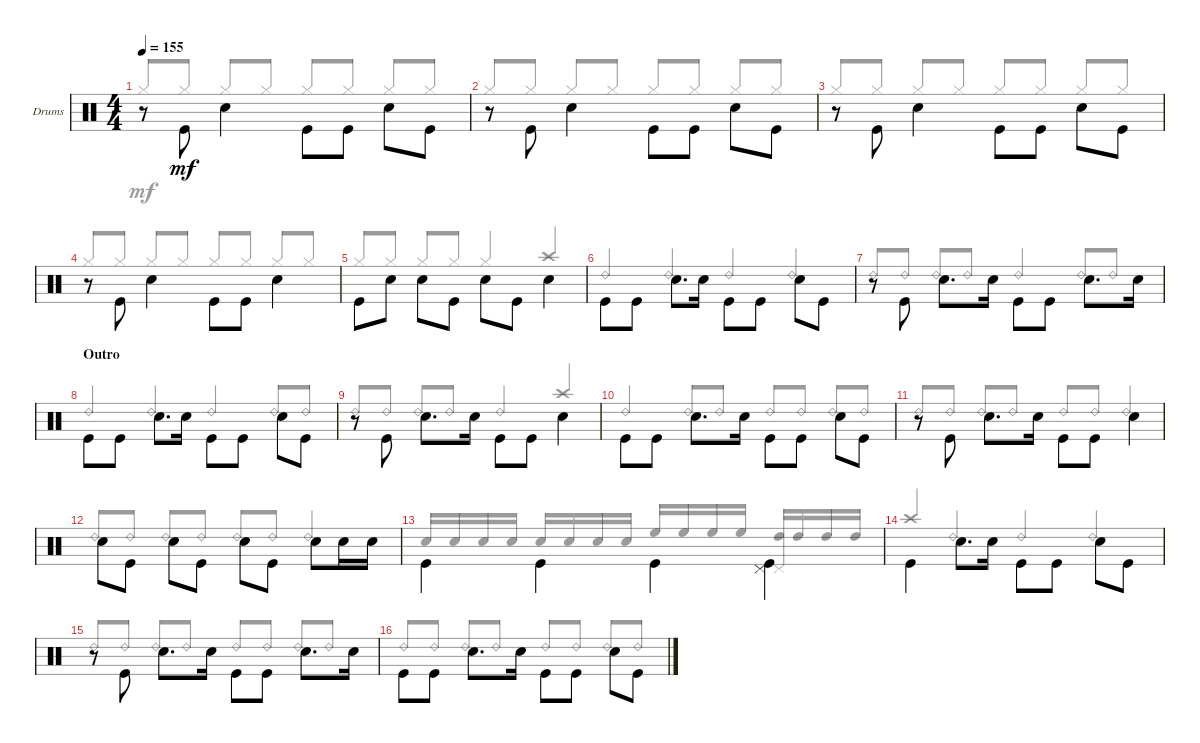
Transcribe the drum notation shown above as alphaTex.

\defaultSystemsLayout 4
\bracketExtendMode groupsimilarinstruments
\firstSystemTrackNameOrientation horizontal
\otherSystemsTrackNameOrientation horizontal
\track ("PETER CRISS" "Drums") {instrument percussion}
\staff {score}
\articulation defaults
\voice
\ts (4 4)
\tempo 155
\clef neutral
\ks c
r.8{dy mf} "Kick (hit)".8{beam invert} "Snare (hit) 2".4{beam invert} "Kick (hit)".8{beam invert} "Kick (hit)".8 "Snare (hit) 2".8{beam invert} "Kick (hit)".8 |
r.8 "Kick (hit)".8{beam invert} "Snare (hit) 2".4{beam invert} "Kick (hit)".8{beam invert} "Kick (hit)".8 "Snare (hit) 2".8{beam invert} "Kick (hit)".8 |
r.8 "Kick (hit)".8{beam invert} "Snare (hit) 2".4{beam invert} "Kick (hit)".8{beam invert} "Kick (hit)".8 "Snare (hit) 2".8{beam invert} "Kick (hit)".8 |
r.8 "Kick (hit)".8{beam invert} "Snare (hit) 2".4{beam invert} "Kick (hit)".8{beam invert} "Kick (hit)".8 "Snare (hit) 2".4{beam invert} |
"Kick (hit)".8{beam invert} "Snare (hit) 2".8 "Snare (hit) 2".8{beam invert} "Kick (hit)".8 "Snare (hit) 2".8{beam invert} "Kick (hit)".8 "Snare (hit) 2".4{beam invert} |
"Kick (hit)".8{beam invert} "Kick (hit)".8 "Snare (hit) 2".8{d beam invert} "Snare (hit) 2".16 "Kick (hit)".8{beam invert} "Kick (hit)".8 "Snare (hit) 2".8{beam invert} "Kick (hit)".8 |
r.8{beam invert} "Kick (hit)".8{beam invert} "Snare (hit) 2".8{d beam invert} "Snare (hit) 2".16 "Kick (hit)".8{beam invert} "Kick (hit)".8 "Snare (hit) 2".8{d beam invert} "Snare (hit) 2".16 |
\section ("" "Outro")
"Kick (hit)".8{beam invert} "Kick (hit)".8 "Snare (hit) 2".8{d beam invert} "Snare (hit) 2".16 "Kick (hit)".8{beam invert} "Kick (hit)".8 "Snare (hit) 2".8{beam invert} "Kick (hit)".8 |
r.8{beam invert} "Kick (hit)".8{beam invert} "Snare (hit) 2".8{d beam invert} "Snare (hit) 2".16 "Kick (hit)".8{beam invert} "Kick (hit)".8 "Snare (hit) 2".4{beam invert} |
"Kick (hit)".8{beam invert} "Kick (hit)".8 "Snare (hit) 2".8{d beam invert} "Snare (hit) 2".16 "Kick (hit)".8{beam invert} "Kick (hit)".8 "Snare (hit) 2".8{beam invert} "Kick (hit)".8 |
r.8{beam invert} "Kick (hit)".8{beam invert} "Snare (hit) 2".8{d beam invert} "Snare (hit) 2".16 "Kick (hit)".8{beam invert} "Kick (hit)".8 "Snare (hit) 2".4{beam invert} |
"Snare (hit) 2".8{beam invert} "Kick (hit)".8 "Snare (hit) 2".8{beam invert} "Kick (hit)".8 "Snare (hit) 2".8{beam invert} "Kick (hit)".8 "Snare (hit) 2".8{beam invert} "Snare (hit) 2".16 "Snare (hit) 2".16 |
"Kick (hit)".4{beam invert} "Kick (hit)".4{beam invert} "Kick (hit)".4{beam invert} ("Kick (hit)" "Pedal Hi-Hat (hit)").4{beam invert} |
"Kick (hit)".4{beam invert} "Snare (hit) 2".8{d beam invert} "Snare (hit) 2".16 "Kick (hit)".8{beam invert} "Kick (hit)".8 "Snare (hit) 2".8{beam invert} "Kick (hit)".8 |
r.8{beam invert} "Kick (hit)".8{beam invert} "Snare (hit) 2".8{d beam invert} "Snare (hit) 2".16 "Kick (hit)".8{beam invert} "Kick (hit)".8 "Snare (hit) 2".8{d beam invert} "Snare (hit) 2".16 |
"Kick (hit)".8{beam invert} "Kick (hit)".8 "Snare (hit) 2".8{d beam invert} "Snare (hit) 2".16 "Kick (hit)".8{beam invert} "Kick (hit)".8 "Snare (hit) 2".8{beam invert} "Kick (hit)".8
\voice
\clef neutral
\ottava regular
\simile none
\ks c "Hi-Hat (closed)".8{dy mf beam invert} "Hi-Hat (closed)".8 "Hi-Hat (closed)".8{beam invert} "Hi-Hat (closed)".8 "Hi-Hat (closed)".8{beam invert} "Hi-Hat (closed)".8 "Hi-Hat (closed)".8{beam invert} "Hi-Hat (closed)".8
|
"Hi-Hat (closed)".8{beam invert} "Hi-Hat (closed)".8 "Hi-Hat (closed)".8{beam invert} "Hi-Hat (closed)".8 "Hi-Hat (closed)".8{beam invert} "Hi-Hat (closed)".8 "Hi-Hat (closed)".8{beam invert} "Hi-Hat (closed)".8 |
"Hi-Hat (closed)".8{beam invert} "Hi-Hat (closed)".8 "Hi-Hat (closed)".8{beam invert} "Hi-Hat (closed)".8 "Hi-Hat (closed)".8{beam invert} "Hi-Hat (closed)".8 "Hi-Hat (closed)".8{beam invert} "Hi-Hat (closed)".8 |
"Hi-Hat (closed)".8{beam invert} "Hi-Hat (closed)".8 "Hi-Hat (closed)".8{beam invert} "Hi-Hat (closed)".8 "Hi-Hat (closed)".8{beam invert} "Hi-Hat (closed)".8 "Hi-Hat (closed)".8{beam invert} "Hi-Hat (closed)".8 |
"Hi-Hat (closed)".8{beam invert} "Hi-Hat (closed)".8 "Hi-Hat (closed)".8{beam invert} "Hi-Hat (closed)".8 "Hi-Hat (closed)".4{beam invert} "Crash high (hit)".4{beam invert} |
"Ride (bell) 2".4{beam invert} "Ride (bell) 2".4{beam invert} "Ride (bell) 2".4{beam invert} "Ride (bell) 2".4{beam invert} |
"Ride (bell) 2".8{beam invert} "Ride (bell) 2".8 "Ride (bell) 2".8{beam invert} "Ride (bell) 2".8 "Ride (bell) 2".4{beam invert} "Ride (bell) 2".8{beam invert} "Ride (bell) 2".8 |
"Ride (bell) 2".4{beam invert} "Ride (bell) 2".4{beam invert} "Ride (bell) 2".4{beam invert} "Ride (bell) 2".8{beam invert} "Ride (bell) 2".8 |
"Ride (bell) 2".8{beam invert} "Ride (bell) 2".8 "Ride (bell) 2".8{beam invert} "Ride (bell) 2".8 "Ride (bell) 2".4{beam invert} "Crash high (hit)".4{beam invert} |
"Ride (bell) 2".4{beam invert} "Ride (bell) 2".8{beam invert} "Ride (bell) 2".8 "Ride (bell) 2".8{beam invert} "Ride (bell) 2".8 "Ride (bell) 2".8{beam invert} "Ride (bell) 2".8 |
"Ride (bell) 2".8{beam invert} "Ride (bell) 2".8 "Ride (bell) 2".8{beam invert} "Ride (bell) 2".8 "Ride (bell) 2".8{beam invert} "Ride (bell) 2".8 "Ride (bell) 2".4{beam invert} |
"Ride (bell) 2".8{beam invert} "Ride (bell) 2".8 "Ride (bell) 2".8{beam invert} "Ride (bell) 2".8 "Ride (bell) 2".8{beam invert} "Ride (bell) 2".8 "Ride (bell) 2".4{beam invert} |
"Snare (hit) 2".16{beam invert} "Snare (hit) 2".16 "Snare (hit) 2".16 "Snare (hit) 2".16 "Snare (hit) 2".16{beam invert} "Snare (hit) 2".16 "Snare (hit) 2".16 "Snare (hit) 2".16 "High Floor Tom (hit)".16{beam invert} "High Floor Tom (hit)".16 "High Floor Tom (hit)".16 "High Floor Tom (hit)".16 ("High Tom (hit)" "Pedal Hi-Hat (hit)").16{beam invert} "High Tom (hit)".16 "High Tom (hit)".16 "High Tom (hit)".16 |
"Crash high (hit)".4{beam invert} "Ride (bell) 2".4{beam invert} "Ride (bell) 2".4{beam invert} "Ride (bell) 2".4{beam invert} |
"Ride (bell) 2".8{beam invert} "Ride (bell) 2".8 "Ride (bell) 2".8{beam invert} "Ride (bell) 2".8 "Ride (bell) 2".8{beam invert} "Ride (bell) 2".8 "Ride (bell) 2".8{beam invert} "Ride (bell) 2".8 |
"Ride (bell) 2".8{beam invert} "Ride (bell) 2".8 "Ride (bell) 2".8{beam invert} "Ride (bell) 2".8 "Ride (bell) 2".8{beam invert} "Ride (bell) 2".8 "Ride (bell) 2".8{beam invert} "Ride (bell) 2".8
